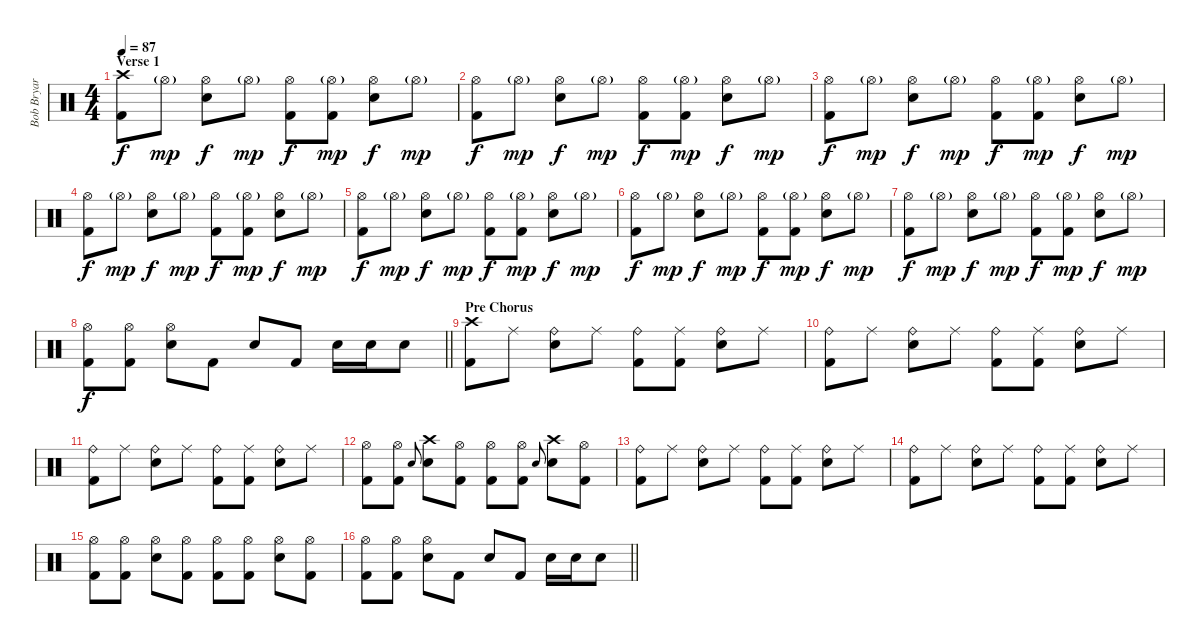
\track ("Bob Bryar" "Bob Bryar") {instrument percussion}
\staff {score}
\articulation defaults
\ts (4 4)
\section ("" "Verse 1")
\tempo 87
\clef neutral
\ks c
("Crash high (hit)" "Kick (hit) 2").8{dy f} "Hi-Hat (open)"{g}.8{dy mp} ("Hi-Hat (open)" "Electric Snare (hit)").8{dy f} "Hi-Hat (open)"{g}.8{dy mp} ("Hi-Hat (open)" "Kick (hit) 2").8{dy f} ("Hi-Hat (open)"{g} "Kick (hit) 2").8{dy mp} ("Hi-Hat (open)" "Electric Snare (hit)").8{dy f} "Hi-Hat (open)"{g}.8{dy mp} |
("Hi-Hat (open)" "Kick (hit) 2").8{dy f} "Hi-Hat (open)"{g}.8{dy mp} ("Hi-Hat (open)" "Electric Snare (hit)").8{dy f} "Hi-Hat (open)"{g}.8{dy mp} ("Hi-Hat (open)" "Kick (hit) 2").8{dy f} ("Hi-Hat (open)"{g} "Kick (hit) 2").8{dy mp} ("Hi-Hat (open)" "Electric Snare (hit)").8{dy f} "Hi-Hat (open)"{g}.8{dy mp} |
("Hi-Hat (open)" "Kick (hit) 2").8{dy f} "Hi-Hat (open)"{g}.8{dy mp} ("Hi-Hat (open)" "Electric Snare (hit)").8{dy f} "Hi-Hat (open)"{g}.8{dy mp} ("Hi-Hat (open)" "Kick (hit) 2").8{dy f} ("Hi-Hat (open)"{g} "Kick (hit) 2").8{dy mp} ("Hi-Hat (open)" "Electric Snare (hit)").8{dy f} "Hi-Hat (open)"{g}.8{dy mp} |
("Hi-Hat (open)" "Kick (hit) 2").8{dy f} "Hi-Hat (open)"{g}.8{dy mp} ("Hi-Hat (open)" "Electric Snare (hit)").8{dy f} "Hi-Hat (open)"{g}.8{dy mp} ("Hi-Hat (open)" "Kick (hit) 2").8{dy f} ("Hi-Hat (open)"{g} "Kick (hit) 2").8{dy mp} ("Hi-Hat (open)" "Electric Snare (hit)").8{dy f} "Hi-Hat (open)"{g}.8{dy mp} |
("Hi-Hat (open)" "Kick (hit) 2").8{dy f} "Hi-Hat (open)"{g}.8{dy mp} ("Hi-Hat (open)" "Electric Snare (hit)").8{dy f} "Hi-Hat (open)"{g}.8{dy mp} ("Hi-Hat (open)" "Kick (hit) 2").8{dy f} ("Hi-Hat (open)"{g} "Kick (hit) 2").8{dy mp} ("Hi-Hat (open)" "Electric Snare (hit)").8{dy f} "Hi-Hat (open)"{g}.8{dy mp} |
("Hi-Hat (open)" "Kick (hit) 2").8{dy f} "Hi-Hat (open)"{g}.8{dy mp} ("Hi-Hat (open)" "Electric Snare (hit)").8{dy f} "Hi-Hat (open)"{g}.8{dy mp} ("Hi-Hat (open)" "Kick (hit) 2").8{dy f} ("Hi-Hat (open)"{g} "Kick (hit) 2").8{dy mp} ("Hi-Hat (open)" "Electric Snare (hit)").8{dy f} "Hi-Hat (open)"{g}.8{dy mp} |
("Hi-Hat (open)" "Kick (hit) 2").8{dy f} "Hi-Hat (open)"{g}.8{dy mp} ("Hi-Hat (open)" "Electric Snare (hit)").8{dy f} "Hi-Hat (open)"{g}.8{dy mp} ("Hi-Hat (open)" "Kick (hit) 2").8{dy f} ("Hi-Hat (open)"{g} "Kick (hit) 2").8{dy mp} ("Hi-Hat (open)" "Electric Snare (hit)").8{dy f} "Hi-Hat (open)"{g}.8{dy mp} |
\barLineRight lightlight
("Hi-Hat (open)" "Kick (hit) 2").8{dy f} ("Hi-Hat (open)" "Kick (hit) 2").8 ("Hi-Hat (open)" "Electric Snare (hit)").8 "Kick (hit) 2".8 "Electric Snare (hit)".8 "Kick (hit) 2".8 "Electric Snare (hit)".16 "Electric Snare (hit)".16 "Electric Snare (hit)".8 |
\section ("" "Pre Chorus")
("Crash high (hit)" "Kick (hit) 2").8 "Ride (middle)".8 ("Ride (bell)" "Electric Snare (hit)").8 "Ride (middle)".8 ("Ride (bell)" "Kick (hit) 2").8 ("Ride (middle)" "Kick (hit) 2").8 ("Ride (bell)" "Electric Snare (hit)").8 "Ride (middle)".8 |
("Ride (bell)" "Kick (hit) 2").8 "Ride (middle)".8 ("Ride (bell)" "Electric Snare (hit)").8 "Ride (middle)".8 ("Ride (bell)" "Kick (hit) 2").8 ("Ride (middle)" "Kick (hit) 2").8 ("Ride (bell)" "Electric Snare (hit)").8 "Ride (middle)".8 |
("Ride (bell)" "Kick (hit) 2").8 "Ride (middle)".8 ("Ride (bell)" "Electric Snare (hit)").8 "Ride (middle)".8 ("Ride (bell)" "Kick (hit) 2").8 ("Ride (middle)" "Kick (hit) 2").8 ("Ride (bell)" "Electric Snare (hit)").8 "Ride (middle)".8 |
("Hi-Hat (open)" "Kick (hit) 2").8 ("Hi-Hat (open)" "Kick (hit) 2").8 "Electric Snare (hit)".8{gr onbeat} ("Crash high (hit)" "Electric Snare (hit)").8 ("Hi-Hat (open)" "Kick (hit) 2").8 ("Hi-Hat (open)" "Kick (hit) 2").8 ("Hi-Hat (open)" "Kick (hit) 2").8 "Electric Snare (hit)".8{gr onbeat} ("Crash high (hit)" "Electric Snare (hit)").8 ("Hi-Hat (open)" "Kick (hit) 2").8 |
("Ride (bell)" "Kick (hit) 2").8 "Ride (middle)".8 ("Ride (bell)" "Electric Snare (hit)").8 "Ride (middle)".8 ("Ride (bell)" "Kick (hit) 2").8 ("Ride (middle)" "Kick (hit) 2").8 ("Ride (bell)" "Electric Snare (hit)").8 "Ride (middle)".8 |
("Ride (bell)" "Kick (hit) 2").8 "Ride (middle)".8 ("Ride (bell)" "Electric Snare (hit)").8 "Ride (middle)".8 ("Ride (bell)" "Kick (hit) 2").8 ("Ride (middle)" "Kick (hit) 2").8 ("Ride (bell)" "Electric Snare (hit)").8 "Ride (middle)".8 |
("Hi-Hat (open)" "Kick (hit) 2").8 ("Hi-Hat (open)" "Kick (hit) 2").8 ("Hi-Hat (open)" "Electric Snare (hit)").8 ("Hi-Hat (open)" "Kick (hit) 2").8 ("Hi-Hat (open)" "Kick (hit) 2").8 ("Hi-Hat (open)" "Kick (hit) 2").8 ("Hi-Hat (open)" "Electric Snare (hit)").8 ("Hi-Hat (open)" "Kick (hit) 2").8 |
\barLineRight lightlight
("Hi-Hat (open)" "Kick (hit) 2").8 ("Hi-Hat (open)" "Kick (hit) 2").8 ("Hi-Hat (open)" "Electric Snare (hit)").8 "Kick (hit) 2".8 "Electric Snare (hit)".8 "Kick (hit) 2".8 "Electric Snare (hit)".16 "Electric Snare (hit)".16 "Electric Snare (hit)".8
